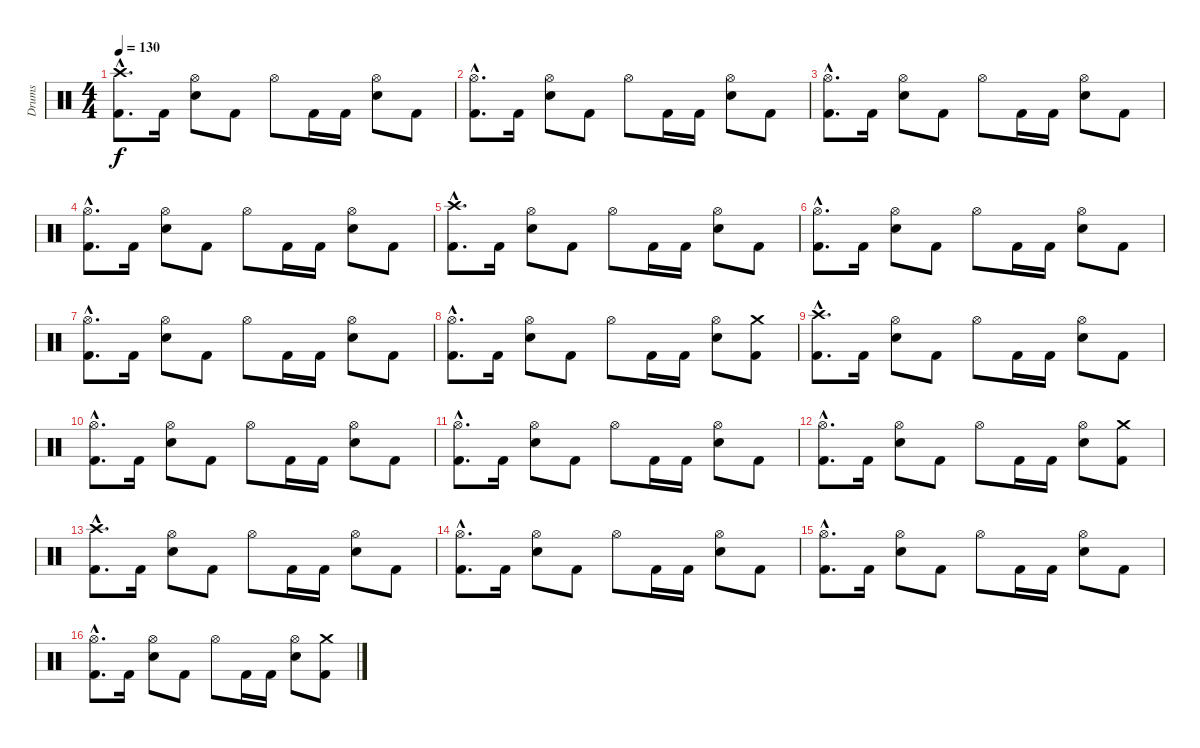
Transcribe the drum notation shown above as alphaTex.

\track ("Drums" "Drums") {instrument percussion}
\staff {score}
\articulation defaults
\ts (4 4)
\tempo 130
\clef neutral
\ks c
("Crash high (hit)"{hac} "Kick (hit) 2"{hac}).8{d dy f} "Kick (hit) 2".16 ("Hi-Hat (open)" "Snare (hit) 2").8 "Kick (hit) 2".8 "Hi-Hat (open)".8 "Kick (hit) 2".16 "Kick (hit) 2".16 ("Hi-Hat (open)" "Snare (hit) 2").8 "Kick (hit) 2".8 |
("Hi-Hat (open)"{hac} "Kick (hit) 2"{hac}).8{d} "Kick (hit) 2".16 ("Hi-Hat (open)" "Snare (hit) 2").8 "Kick (hit) 2".8 "Hi-Hat (open)".8 "Kick (hit) 2".16 "Kick (hit) 2".16 ("Hi-Hat (open)" "Snare (hit) 2").8 "Kick (hit) 2".8 |
("Hi-Hat (open)"{hac} "Kick (hit) 2"{hac}).8{d} "Kick (hit) 2".16 ("Hi-Hat (open)" "Snare (hit) 2").8 "Kick (hit) 2".8 "Hi-Hat (open)".8 "Kick (hit) 2".16 "Kick (hit) 2".16 ("Hi-Hat (open)" "Snare (hit) 2").8 "Kick (hit) 2".8 |
("Hi-Hat (open)"{hac} "Kick (hit) 2"{hac}).8{d} "Kick (hit) 2".16 ("Hi-Hat (open)" "Snare (hit) 2").8 "Kick (hit) 2".8 "Hi-Hat (open)".8 "Kick (hit) 2".16 "Kick (hit) 2".16 ("Hi-Hat (open)" "Snare (hit) 2").8 "Kick (hit) 2".8 |
("Crash high (hit)"{hac} "Kick (hit) 2"{hac}).8{d} "Kick (hit) 2".16 ("Hi-Hat (open)" "Snare (hit) 2").8 "Kick (hit) 2".8 "Hi-Hat (open)".8 "Kick (hit) 2".16 "Kick (hit) 2".16 ("Hi-Hat (open)" "Snare (hit) 2").8 "Kick (hit) 2".8 |
("Hi-Hat (open)"{hac} "Kick (hit) 2"{hac}).8{d} "Kick (hit) 2".16 ("Hi-Hat (open)" "Snare (hit) 2").8 "Kick (hit) 2".8 "Hi-Hat (open)".8 "Kick (hit) 2".16 "Kick (hit) 2".16 ("Hi-Hat (open)" "Snare (hit) 2").8 "Kick (hit) 2".8 |
("Hi-Hat (open)"{hac} "Kick (hit) 2"{hac}).8{d} "Kick (hit) 2".16 ("Hi-Hat (open)" "Snare (hit) 2").8 "Kick (hit) 2".8 "Hi-Hat (open)".8 "Kick (hit) 2".16 "Kick (hit) 2".16 ("Hi-Hat (open)" "Snare (hit) 2").8 "Kick (hit) 2".8 |
("Hi-Hat (open)"{hac} "Kick (hit) 2"{hac}).8{d} "Kick (hit) 2".16 ("Hi-Hat (open)" "Snare (hit) 2").8 "Kick (hit) 2".8 "Hi-Hat (open)".8 "Kick (hit) 2".16 "Kick (hit) 2".16 ("Hi-Hat (open)" "Snare (hit) 2").8 ("Crash medium (hit)" "Kick (hit) 2").8 |
("Crash high (hit)"{hac} "Kick (hit) 2"{hac}).8{d} "Kick (hit) 2".16 ("Hi-Hat (open)" "Snare (hit) 2").8 "Kick (hit) 2".8 "Hi-Hat (open)".8 "Kick (hit) 2".16 "Kick (hit) 2".16 ("Hi-Hat (open)" "Snare (hit) 2").8 "Kick (hit) 2".8 |
("Hi-Hat (open)"{hac} "Kick (hit) 2"{hac}).8{d} "Kick (hit) 2".16 ("Hi-Hat (open)" "Snare (hit) 2").8 "Kick (hit) 2".8 "Hi-Hat (open)".8 "Kick (hit) 2".16 "Kick (hit) 2".16 ("Hi-Hat (open)" "Snare (hit) 2").8 "Kick (hit) 2".8 |
("Hi-Hat (open)"{hac} "Kick (hit) 2"{hac}).8{d} "Kick (hit) 2".16 ("Hi-Hat (open)" "Snare (hit) 2").8 "Kick (hit) 2".8 "Hi-Hat (open)".8 "Kick (hit) 2".16 "Kick (hit) 2".16 ("Hi-Hat (open)" "Snare (hit) 2").8 "Kick (hit) 2".8 |
("Hi-Hat (open)"{hac} "Kick (hit) 2"{hac}).8{d} "Kick (hit) 2".16 ("Hi-Hat (open)" "Snare (hit) 2").8 "Kick (hit) 2".8 "Hi-Hat (open)".8 "Kick (hit) 2".16 "Kick (hit) 2".16 ("Hi-Hat (open)" "Snare (hit) 2").8 ("Crash medium (hit)" "Kick (hit) 2").8 |
("Crash high (hit)"{hac} "Kick (hit) 2"{hac}).8{d} "Kick (hit) 2".16 ("Hi-Hat (open)" "Snare (hit) 2").8 "Kick (hit) 2".8 "Hi-Hat (open)".8 "Kick (hit) 2".16 "Kick (hit) 2".16 ("Hi-Hat (open)" "Snare (hit) 2").8 "Kick (hit) 2".8 |
("Hi-Hat (open)"{hac} "Kick (hit) 2"{hac}).8{d} "Kick (hit) 2".16 ("Hi-Hat (open)" "Snare (hit) 2").8 "Kick (hit) 2".8 "Hi-Hat (open)".8 "Kick (hit) 2".16 "Kick (hit) 2".16 ("Hi-Hat (open)" "Snare (hit) 2").8 "Kick (hit) 2".8 |
("Hi-Hat (open)"{hac} "Kick (hit) 2"{hac}).8{d} "Kick (hit) 2".16 ("Hi-Hat (open)" "Snare (hit) 2").8 "Kick (hit) 2".8 "Hi-Hat (open)".8 "Kick (hit) 2".16 "Kick (hit) 2".16 ("Hi-Hat (open)" "Snare (hit) 2").8 "Kick (hit) 2".8 |
("Hi-Hat (open)"{hac} "Kick (hit) 2"{hac}).8{d} "Kick (hit) 2".16 ("Hi-Hat (open)" "Snare (hit) 2").8 "Kick (hit) 2".8 "Hi-Hat (open)".8 "Kick (hit) 2".16 "Kick (hit) 2".16 ("Hi-Hat (open)" "Snare (hit) 2").8 ("Crash medium (hit)" "Kick (hit) 2").8
